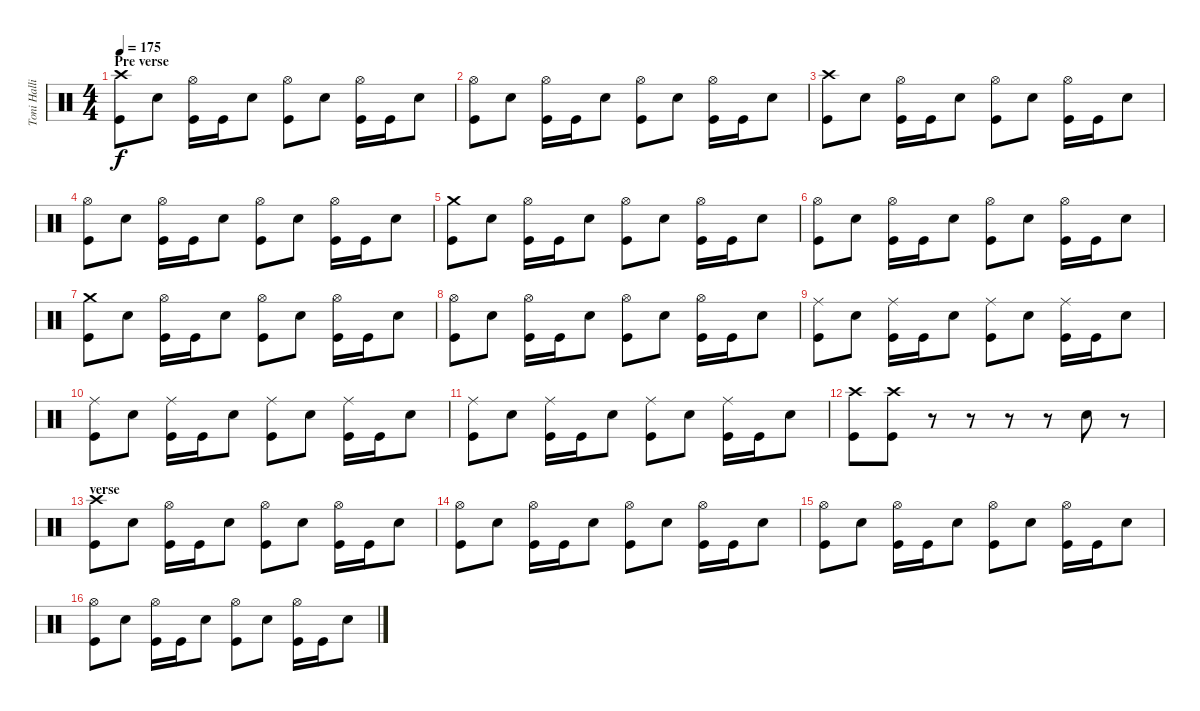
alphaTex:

\track ("Toni Hallio" "Toni Halli") {instrument percussion}
\staff {score}
\articulation defaults
\ts (4 4)
\section ("" "Pre verse")
\tempo 175
\clef neutral
\ks c
("Crash high (hit)" "Kick (hit)").8{dy f} "Snare (hit) 2".8 ("Hi-Hat (open)" "Kick (hit)").16 "Kick (hit)".16 "Snare (hit) 2".8 ("Hi-Hat (open)" "Kick (hit)").8 "Snare (hit) 2".8 ("Hi-Hat (open)" "Kick (hit)").16 "Kick (hit)".16 "Snare (hit) 2".8 |
("Hi-Hat (open)" "Kick (hit)").8 "Snare (hit) 2".8 ("Hi-Hat (open)" "Kick (hit)").16 "Kick (hit)".16 "Snare (hit) 2".8 ("Hi-Hat (open)" "Kick (hit)").8 "Snare (hit) 2".8 ("Hi-Hat (open)" "Kick (hit)").16 "Kick (hit)".16 "Snare (hit) 2".8 |
("Crash high (hit)" "Kick (hit)").8 "Snare (hit) 2".8 ("Hi-Hat (open)" "Kick (hit)").16 "Kick (hit)".16 "Snare (hit) 2".8 ("Hi-Hat (open)" "Kick (hit)").8 "Snare (hit) 2".8 ("Hi-Hat (open)" "Kick (hit)").16 "Kick (hit)".16 "Snare (hit) 2".8 |
("Hi-Hat (open)" "Kick (hit)").8 "Snare (hit) 2".8 ("Hi-Hat (open)" "Kick (hit)").16 "Kick (hit)".16 "Snare (hit) 2".8 ("Hi-Hat (open)" "Kick (hit)").8 "Snare (hit) 2".8 ("Hi-Hat (open)" "Kick (hit)").16 "Kick (hit)".16 "Snare (hit) 2".8 |
("Crash medium (hit)" "Kick (hit)").8 "Snare (hit) 2".8 ("Hi-Hat (open)" "Kick (hit)").16 "Kick (hit)".16 "Snare (hit) 2".8 ("Hi-Hat (open)" "Kick (hit)").8 "Snare (hit) 2".8 ("Hi-Hat (open)" "Kick (hit)").16 "Kick (hit)".16 "Snare (hit) 2".8 |
("Hi-Hat (open)" "Kick (hit)").8 "Snare (hit) 2".8 ("Hi-Hat (open)" "Kick (hit)").16 "Kick (hit)".16 "Snare (hit) 2".8 ("Hi-Hat (open)" "Kick (hit)").8 "Snare (hit) 2".8 ("Hi-Hat (open)" "Kick (hit)").16 "Kick (hit)".16 "Snare (hit) 2".8 |
("Crash medium (hit)" "Kick (hit)").8 "Snare (hit) 2".8 ("Hi-Hat (open)" "Kick (hit)").16 "Kick (hit)".16 "Snare (hit) 2".8 ("Hi-Hat (open)" "Kick (hit)").8 "Snare (hit) 2".8 ("Hi-Hat (open)" "Kick (hit)").16 "Kick (hit)".16 "Snare (hit) 2".8 |
("Hi-Hat (open)" "Kick (hit)").8 "Snare (hit) 2".8 ("Hi-Hat (open)" "Kick (hit)").16 "Kick (hit)".16 "Snare (hit) 2".8 ("Hi-Hat (open)" "Kick (hit)").8 "Snare (hit) 2".8 ("Hi-Hat (open)" "Kick (hit)").16 "Kick (hit)".16 "Snare (hit) 2".8 |
("Ride (middle)" "Kick (hit)").8 "Snare (hit) 2".8 ("Ride (middle)" "Kick (hit)").16 "Kick (hit)".16 "Snare (hit) 2".8 ("Ride (middle)" "Kick (hit)").8 "Snare (hit) 2".8 ("Ride (middle)" "Kick (hit)").16 "Kick (hit)".16 "Snare (hit) 2".8 |
("Ride (middle)" "Kick (hit)").8 "Snare (hit) 2".8 ("Ride (middle)" "Kick (hit)").16 "Kick (hit)".16 "Snare (hit) 2".8 ("Ride (middle)" "Kick (hit)").8 "Snare (hit) 2".8 ("Ride (middle)" "Kick (hit)").16 "Kick (hit)".16 "Snare (hit) 2".8 |
("Ride (middle)" "Kick (hit)").8 "Snare (hit) 2".8 ("Ride (middle)" "Kick (hit)").16 "Kick (hit)".16 "Snare (hit) 2".8 ("Ride (middle)" "Kick (hit)").8 "Snare (hit) 2".8 ("Ride (middle)" "Kick (hit)").16 "Kick (hit)".16 "Snare (hit) 2".8 |
("Crash high (hit)" "Kick (hit)").8 ("Crash high (hit)" "Kick (hit)").8 r.8 r.8 r.8 r.8 "Snare (hit) 2".8 r.8 |
\section ("" "verse")
("Crash high (hit)" "Kick (hit)").8 "Snare (hit) 2".8 ("Hi-Hat (open)" "Kick (hit)").16 "Kick (hit)".16 "Snare (hit) 2".8 ("Hi-Hat (open)" "Kick (hit)").8 "Snare (hit) 2".8 ("Hi-Hat (open)" "Kick (hit)").16 "Kick (hit)".16 "Snare (hit) 2".8 |
("Hi-Hat (open)" "Kick (hit)").8 "Snare (hit) 2".8 ("Hi-Hat (open)" "Kick (hit)").16 "Kick (hit)".16 "Snare (hit) 2".8 ("Hi-Hat (open)" "Kick (hit)").8 "Snare (hit) 2".8 ("Hi-Hat (open)" "Kick (hit)").16 "Kick (hit)".16 "Snare (hit) 2".8 |
("Hi-Hat (open)" "Kick (hit)").8 "Snare (hit) 2".8 ("Hi-Hat (open)" "Kick (hit)").16 "Kick (hit)".16 "Snare (hit) 2".8 ("Hi-Hat (open)" "Kick (hit)").8 "Snare (hit) 2".8 ("Hi-Hat (open)" "Kick (hit)").16 "Kick (hit)".16 "Snare (hit) 2".8 |
("Hi-Hat (open)" "Kick (hit)").8 "Snare (hit) 2".8 ("Hi-Hat (open)" "Kick (hit)").16 "Kick (hit)".16 "Snare (hit) 2".8 ("Hi-Hat (open)" "Kick (hit)").8 "Snare (hit) 2".8 ("Hi-Hat (open)" "Kick (hit)").16 "Kick (hit)".16 "Snare (hit) 2".8
